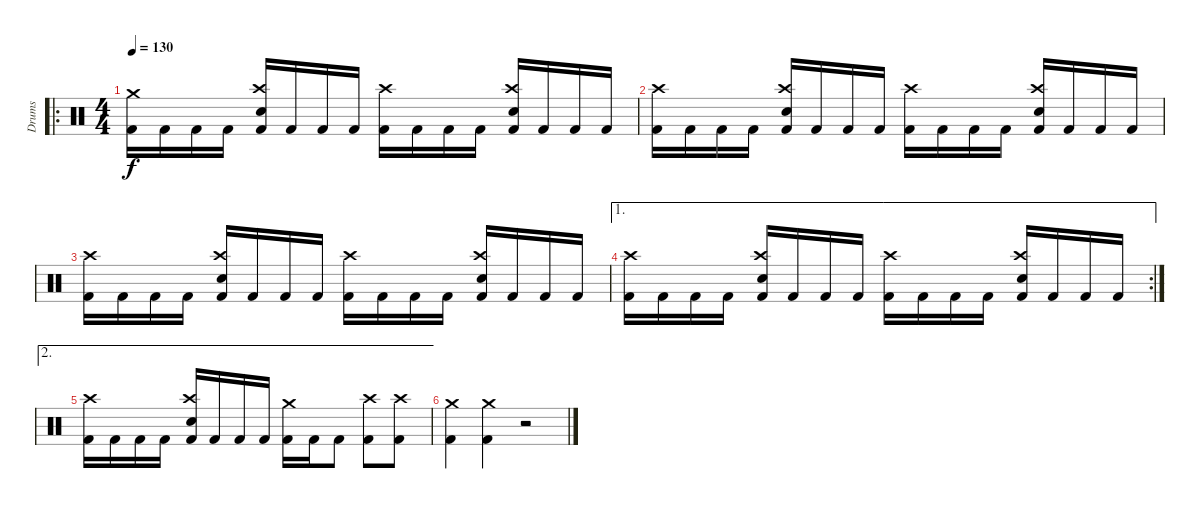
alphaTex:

\track ("Drums" "Drums") {instrument percussion}
\staff {score}
\articulation defaults
\ro
\ts (4 4)
\tempo 130
\clef neutral
\ks c
("Crash medium (hit)" "Kick (hit) 2").16{dy f} "Kick (hit) 2".16 "Kick (hit) 2".16 "Kick (hit) 2".16 ("Crash high (hit)" "Electric Snare (hit)" "Kick (hit) 2").16 "Kick (hit) 2".16 "Kick (hit) 2".16 "Kick (hit) 2".16 ("Crash high (hit)" "Kick (hit) 2").16 "Kick (hit) 2".16 "Kick (hit) 2".16 "Kick (hit) 2".16 ("Crash high (hit)" "Electric Snare (hit)" "Kick (hit) 2").16 "Kick (hit) 2".16 "Kick (hit) 2".16 "Kick (hit) 2".16 |
("Crash high (hit)" "Kick (hit) 2").16 "Kick (hit) 2".16 "Kick (hit) 2".16 "Kick (hit) 2".16 ("Crash high (hit)" "Electric Snare (hit)" "Kick (hit) 2").16 "Kick (hit) 2".16 "Kick (hit) 2".16 "Kick (hit) 2".16 ("Crash high (hit)" "Kick (hit) 2").16 "Kick (hit) 2".16 "Kick (hit) 2".16 "Kick (hit) 2".16 ("Crash high (hit)" "Electric Snare (hit)" "Kick (hit) 2").16 "Kick (hit) 2".16 "Kick (hit) 2".16 "Kick (hit) 2".16 |
("Crash high (hit)" "Kick (hit) 2").16 "Kick (hit) 2".16 "Kick (hit) 2".16 "Kick (hit) 2".16 ("Crash high (hit)" "Electric Snare (hit)" "Kick (hit) 2").16 "Kick (hit) 2".16 "Kick (hit) 2".16 "Kick (hit) 2".16 ("Crash high (hit)" "Kick (hit) 2").16 "Kick (hit) 2".16 "Kick (hit) 2".16 "Kick (hit) 2".16 ("Crash high (hit)" "Electric Snare (hit)" "Kick (hit) 2").16 "Kick (hit) 2".16 "Kick (hit) 2".16 "Kick (hit) 2".16 |
\ae 1
\rc 2
("Crash high (hit)" "Kick (hit) 2").16 "Kick (hit) 2".16 "Kick (hit) 2".16 "Kick (hit) 2".16 ("Crash high (hit)" "Electric Snare (hit)" "Kick (hit) 2").16 "Kick (hit) 2".16 "Kick (hit) 2".16 "Kick (hit) 2".16 ("Crash high (hit)" "Kick (hit) 2").16 "Kick (hit) 2".16 "Kick (hit) 2".16 "Kick (hit) 2".16 ("Crash high (hit)" "Electric Snare (hit)" "Kick (hit) 2").16 "Kick (hit) 2".16 "Kick (hit) 2".16 "Kick (hit) 2".16 |
\ae 2
("Crash high (hit)" "Kick (hit) 2").16 "Kick (hit) 2".16 "Kick (hit) 2".16 "Kick (hit) 2".16 ("Crash high (hit)" "Electric Snare (hit)" "Kick (hit) 2").16 "Kick (hit) 2".16 "Kick (hit) 2".16 "Kick (hit) 2".16 ("Crash medium (hit)" "Kick (hit) 2").16 "Kick (hit) 2".16 "Kick (hit) 2".8 ("Crash high (hit)" "Kick (hit) 2").8 ("Crash high (hit)" "Kick (hit) 2").8 |
("Crash medium (hit)" "Kick (hit) 2").4 ("Crash medium (hit)" "Kick (hit) 2").4 r.2
